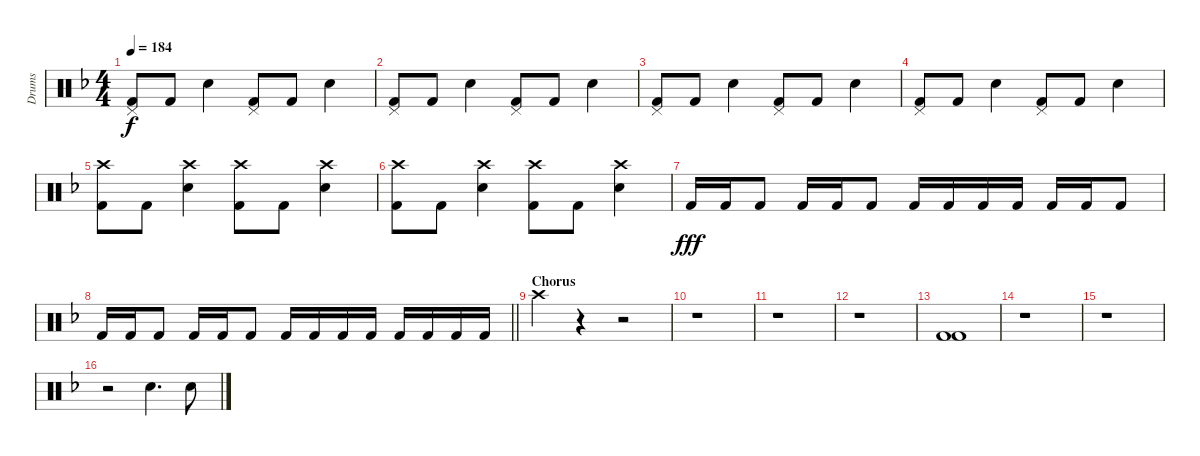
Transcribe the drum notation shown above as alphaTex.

\track ("Drums" "Drums") {instrument percussion}
\staff {score}
\articulation defaults
\ts (4 4)
\tempo 184
\clef neutral
\ks f
("Pedal Hi-Hat (hit)" "Kick (hit) 2").8{dy f} "Kick (hit) 2".8 "Electric Snare (hit)".4 ("Pedal Hi-Hat (hit)" "Kick (hit) 2").8 "Kick (hit) 2".8 "Electric Snare (hit)".4 |
("Pedal Hi-Hat (hit)" "Kick (hit) 2").8 "Kick (hit) 2".8 "Electric Snare (hit)".4 ("Pedal Hi-Hat (hit)" "Kick (hit) 2").8 "Kick (hit) 2".8 "Electric Snare (hit)".4 |
("Pedal Hi-Hat (hit)" "Kick (hit) 2").8 "Kick (hit) 2".8 "Electric Snare (hit)".4 ("Pedal Hi-Hat (hit)" "Kick (hit) 2").8 "Kick (hit) 2".8 "Electric Snare (hit)".4 |
("Pedal Hi-Hat (hit)" "Kick (hit) 2").8 "Kick (hit) 2".8 "Electric Snare (hit)".4 ("Pedal Hi-Hat (hit)" "Kick (hit) 2").8 "Kick (hit) 2".8 "Electric Snare (hit)".4 |
("Crash high (hit)" "Kick (hit) 2").8 "Kick (hit) 2".8 ("Electric Snare (hit)" "Crash high (hit)").4 ("Crash high (hit)" "Kick (hit) 2").8 "Kick (hit) 2".8 ("Electric Snare (hit)" "Crash high (hit)").4 |
("Crash high (hit)" "Kick (hit) 2").8 "Kick (hit) 2".8 ("Electric Snare (hit)" "Crash high (hit)").4 ("Crash high (hit)" "Kick (hit) 2").8 "Kick (hit) 2".8 ("Electric Snare (hit)" "Crash high (hit)").4 |
"Kick (hit) 2".16{dy fff} "Kick (hit) 2".16 "Kick (hit) 2".8 "Kick (hit) 2".16 "Kick (hit) 2".16 "Kick (hit) 2".8 "Kick (hit) 2".16 "Kick (hit) 2".16 "Kick (hit) 2".16 "Kick (hit) 2".16 "Kick (hit) 2".16 "Kick (hit) 2".16 "Kick (hit) 2".8 |
\barLineRight lightlight "Kick (hit) 2".16 "Kick (hit) 2".16 "Kick (hit) 2".8 "Kick (hit) 2".16 "Kick (hit) 2".16 "Kick (hit) 2".8 "Kick (hit) 2".16 "Kick (hit) 2".16 "Kick (hit) 2".16 "Kick (hit) 2".16 "Kick (hit) 2".16 "Kick (hit) 2".16 "Kick (hit) 2".16 "Kick (hit) 2".16
|
\section ("" "Chorus")
"Crash high (hit)".4 r.4 r.2 |
r.1 |
r.1 |
r.1 |
("Kick (hit) 2" "Kick (hit) 2").1 |
r.1 |
r.1 |
r.2 "Electric Snare (hit)".4{d} "Electric Snare (hit)".8
